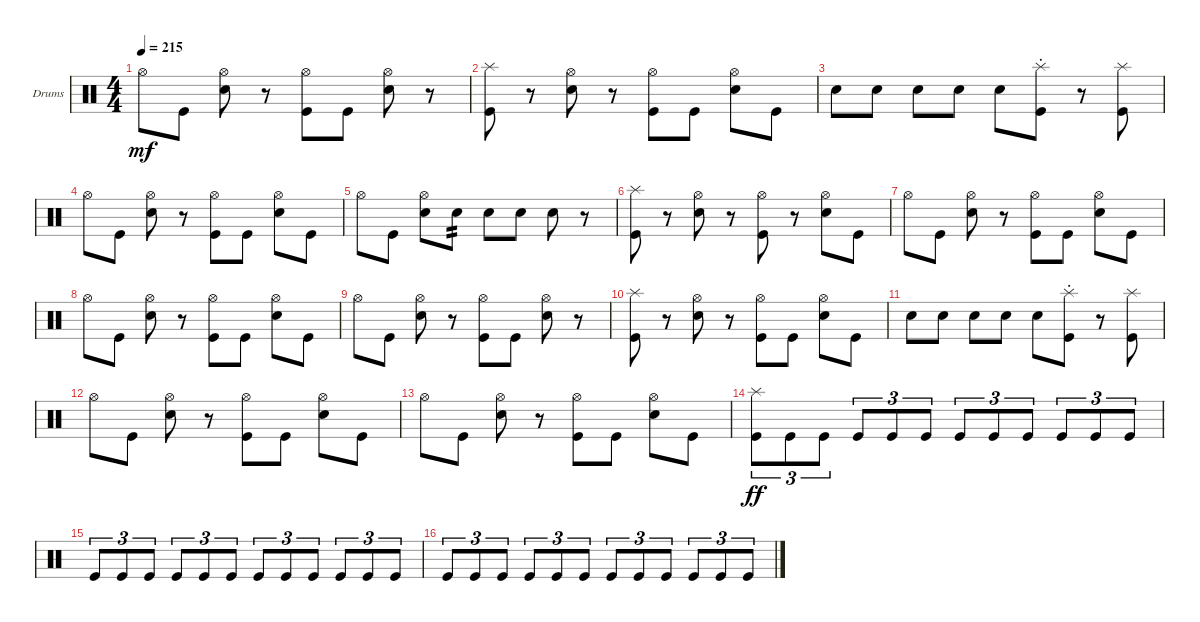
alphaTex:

\bracketExtendMode groupsimilarinstruments
\firstSystemTrackNameOrientation horizontal
\otherSystemsTrackNameOrientation horizontal
\track ("Drumkit" "Drums") {instrument percussion}
\staff {score}
\articulation defaults
\ts (4 4)
\tempo 215
\clef neutral
\ks c "Hi-Hat (open)".8{dy mf} "Kick (hit)".8
("Snare (hit) 2" "Hi-Hat (open)").8 r.8 ("Kick (hit)" "Hi-Hat (open)").8 "Kick (hit)".8 ("Snare (hit) 2" "Hi-Hat (open)").8 r.8 |
("Kick (hit)" "Splash (hit)").8 r.8 ("Snare (hit) 2" "Hi-Hat (open)").8 r.8 ("Kick (hit)" "Hi-Hat (open)").8 "Kick (hit)".8 ("Snare (hit) 2" "Hi-Hat (open)").8 "Kick (hit)".8 |
"Snare (hit) 2".8 "Snare (hit) 2".8 "Snare (hit) 2".8 "Snare (hit) 2".8 "Snare (hit) 2".8 ("Kick (hit)" "Splash (hit)"{st}).8 r.8 ("Kick (hit)" "Splash (hit)").8 |
"Hi-Hat (open)".8 "Kick (hit)".8 ("Snare (hit) 2" "Hi-Hat (open)").8 r.8 ("Kick (hit)" "Hi-Hat (open)").8 "Kick (hit)".8 ("Snare (hit) 2" "Hi-Hat (open)").8 "Kick (hit)".8 |
"Hi-Hat (open)".8 "Kick (hit)".8 ("Snare (hit) 2" "Hi-Hat (open)").8 "Snare (hit) 2".8{tp 2} "Snare (hit) 2".8 "Snare (hit) 2".8 "Snare (hit) 2".8 r.8 |
("Kick (hit)" "Splash (hit)").8 r.8 ("Snare (hit) 2" "Hi-Hat (open)").8 r.8 ("Kick (hit)" "Hi-Hat (open)").8 r.8 ("Snare (hit) 2" "Hi-Hat (open)").8 "Kick (hit)".8 |
"Hi-Hat (open)".8 "Kick (hit)".8 ("Snare (hit) 2" "Hi-Hat (open)").8 r.8 ("Kick (hit)" "Hi-Hat (open)").8 "Kick (hit)".8 ("Snare (hit) 2" "Hi-Hat (open)").8 "Kick (hit)".8 |
"Hi-Hat (open)".8 "Kick (hit)".8 ("Snare (hit) 2" "Hi-Hat (open)").8 r.8 ("Kick (hit)" "Hi-Hat (open)").8 "Kick (hit)".8 ("Snare (hit) 2" "Hi-Hat (open)").8 "Kick (hit)".8 |
"Hi-Hat (open)".8 "Kick (hit)".8 ("Snare (hit) 2" "Hi-Hat (open)").8 r.8 ("Kick (hit)" "Hi-Hat (open)").8 "Kick (hit)".8 ("Snare (hit) 2" "Hi-Hat (open)").8 r.8 |
("Kick (hit)" "Splash (hit)").8 r.8 ("Snare (hit) 2" "Hi-Hat (open)").8 r.8 ("Kick (hit)" "Hi-Hat (open)").8 "Kick (hit)".8 ("Snare (hit) 2" "Hi-Hat (open)").8 "Kick (hit)".8 |
"Snare (hit) 2".8 "Snare (hit) 2".8 "Snare (hit) 2".8 "Snare (hit) 2".8 "Snare (hit) 2".8 ("Kick (hit)" "Splash (hit)"{st}).8 r.8 ("Kick (hit)" "Splash (hit)").8 |
"Hi-Hat (open)".8 "Kick (hit)".8 ("Snare (hit) 2" "Hi-Hat (open)").8 r.8 ("Kick (hit)" "Hi-Hat (open)").8 "Kick (hit)".8 ("Snare (hit) 2" "Hi-Hat (open)").8 "Kick (hit)".8 |
"Hi-Hat (open)".8 "Kick (hit)".8 ("Snare (hit) 2" "Hi-Hat (open)").8 r.8 ("Kick (hit)" "Hi-Hat (open)").8 "Kick (hit)".8 ("Snare (hit) 2" "Hi-Hat (open)").8 "Kick (hit)".8 |
("Kick (hit)" "Splash (hit)").8{tu (3 2) dy ff} "Kick (hit)".8{tu (3 2)} "Kick (hit)".8{tu (3 2)} "Kick (hit)".8{tu (3 2)} "Kick (hit)".8{tu (3 2)} "Kick (hit)".8{tu (3 2)} "Kick (hit)".8{tu (3 2)} "Kick (hit)".8{tu (3 2)} "Kick (hit)".8{tu (3 2)} "Kick (hit)".8{tu (3 2)} "Kick (hit)".8{tu (3 2)} "Kick (hit)".8{tu (3 2)} |
"Kick (hit)".8{tu (3 2)} "Kick (hit)".8{tu (3 2)} "Kick (hit)".8{tu (3 2)} "Kick (hit)".8{tu (3 2)} "Kick (hit)".8{tu (3 2)} "Kick (hit)".8{tu (3 2)} "Kick (hit)".8{tu (3 2)} "Kick (hit)".8{tu (3 2)} "Kick (hit)".8{tu (3 2)} "Kick (hit)".8{tu (3 2)} "Kick (hit)".8{tu (3 2)} "Kick (hit)".8{tu (3 2)} |
"Kick (hit)".8{tu (3 2)} "Kick (hit)".8{tu (3 2)} "Kick (hit)".8{tu (3 2)} "Kick (hit)".8{tu (3 2)} "Kick (hit)".8{tu (3 2)} "Kick (hit)".8{tu (3 2)} "Kick (hit)".8{tu (3 2)} "Kick (hit)".8{tu (3 2)} "Kick (hit)".8{tu (3 2)} "Kick (hit)".8{tu (3 2)} "Kick (hit)".8{tu (3 2)} "Kick (hit)".8{tu (3 2)}
